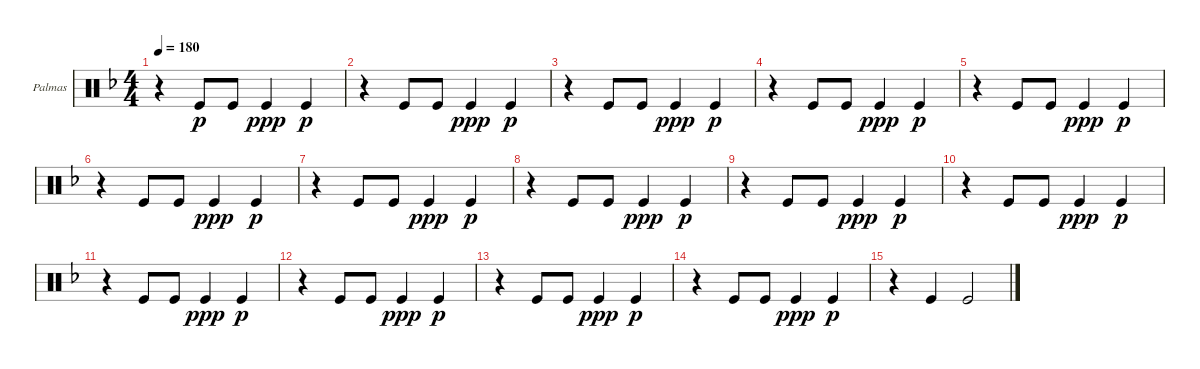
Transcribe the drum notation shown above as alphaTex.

\defaultSystemsLayout 4
\bracketExtendMode groupsimilarinstruments
\firstSystemTrackNameOrientation horizontal
\otherSystemsTrackNameOrientation horizontal
\track ("Palmas" "Palmas") {instrument percussion}
\staff {score}
\articulation defaults
\ts (4 4)
\tempo 180
\clef neutral
\ks f
r.4{dy p} "Kick (hit)".8 "Kick (hit)".8 "Kick (hit)".4{dy ppp} "Kick (hit)".4{dy p} |
r.4 "Kick (hit)".8 "Kick (hit)".8 "Kick (hit)".4{dy ppp} "Kick (hit)".4{dy p} |
r.4 "Kick (hit)".8 "Kick (hit)".8 "Kick (hit)".4{dy ppp} "Kick (hit)".4{dy p} |
r.4 "Kick (hit)".8 "Kick (hit)".8 "Kick (hit)".4{dy ppp} "Kick (hit)".4{dy p} |
r.4 "Kick (hit)".8 "Kick (hit)".8 "Kick (hit)".4{dy ppp} "Kick (hit)".4{dy p} |
r.4 "Kick (hit)".8 "Kick (hit)".8 "Kick (hit)".4{dy ppp} "Kick (hit)".4{dy p} |
r.4 "Kick (hit)".8 "Kick (hit)".8 "Kick (hit)".4{dy ppp} "Kick (hit)".4{dy p} |
r.4 "Kick (hit)".8 "Kick (hit)".8 "Kick (hit)".4{dy ppp} "Kick (hit)".4{dy p} |
r.4 "Kick (hit)".8 "Kick (hit)".8 "Kick (hit)".4{dy ppp} "Kick (hit)".4{dy p} |
r.4 "Kick (hit)".8 "Kick (hit)".8 "Kick (hit)".4{dy ppp} "Kick (hit)".4{dy p} |
r.4 "Kick (hit)".8 "Kick (hit)".8 "Kick (hit)".4{dy ppp} "Kick (hit)".4{dy p} |
r.4 "Kick (hit)".8 "Kick (hit)".8 "Kick (hit)".4{dy ppp} "Kick (hit)".4{dy p} |
r.4 "Kick (hit)".8 "Kick (hit)".8 "Kick (hit)".4{dy ppp} "Kick (hit)".4{dy p} |
r.4 "Kick (hit)".8 "Kick (hit)".8 "Kick (hit)".4{dy ppp} "Kick (hit)".4{dy p} |
r.4 "Kick (hit)".4 "Kick (hit)".2
